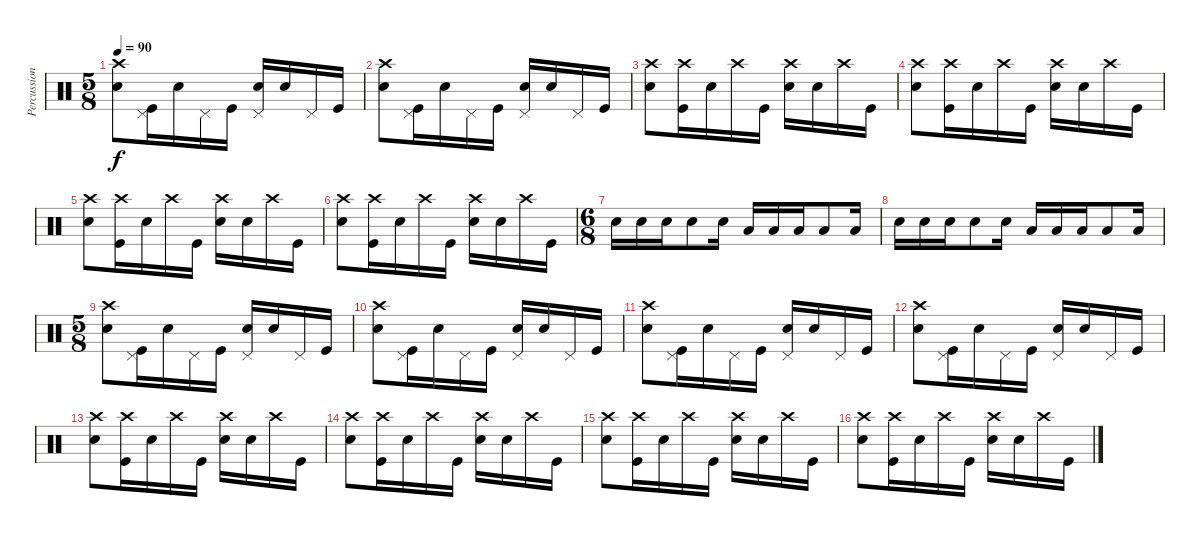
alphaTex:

\track ("Percussions" "Percussion") {instrument percussion}
\staff {score}
\articulation defaults
\ts (5 8)
\tempo 90
\clef neutral
\ks c
("Crash high (hit)" "Snare (hit) 2").8{dy f} ("Pedal Hi-Hat (hit)" "Kick (hit)").16 "Snare (hit) 2".16 "Pedal Hi-Hat (hit)".16 "Kick (hit)".16 ("Pedal Hi-Hat (hit)" "Snare (hit) 2").16 "Snare (hit) 2".16 "Pedal Hi-Hat (hit)".16 "Kick (hit)".16 |
("Crash high (hit)" "Snare (hit) 2").8 ("Pedal Hi-Hat (hit)" "Kick (hit)").16 "Snare (hit) 2".16 "Pedal Hi-Hat (hit)".16 "Kick (hit)".16 ("Pedal Hi-Hat (hit)" "Snare (hit) 2").16 "Snare (hit) 2".16 "Pedal Hi-Hat (hit)".16 "Kick (hit)".16 |
("Crash high (hit)" "Snare (hit) 2").8 ("Crash high (hit)" "Kick (hit)").16 "Snare (hit) 2".16 "Crash high (hit)".16 "Kick (hit)".16 ("Crash high (hit)" "Snare (hit) 2").16 "Snare (hit) 2".16 "Crash high (hit)".16 "Kick (hit)".16 |
("Crash high (hit)" "Snare (hit) 2").8 ("Crash high (hit)" "Kick (hit)").16 "Snare (hit) 2".16 "Crash high (hit)".16 "Kick (hit)".16 ("Crash high (hit)" "Snare (hit) 2").16 "Snare (hit) 2".16 "Crash high (hit)".16 "Kick (hit)".16 |
("Crash high (hit)" "Snare (hit) 2").8 ("Crash high (hit)" "Kick (hit)").16 "Snare (hit) 2".16 "Crash high (hit)".16 "Kick (hit)".16 ("Crash high (hit)" "Snare (hit) 2").16 "Snare (hit) 2".16 "Crash high (hit)".16 "Kick (hit)".16 |
("Crash high (hit)" "Snare (hit) 2").8 ("Crash high (hit)" "Kick (hit)").16 "Snare (hit) 2".16 "Crash high (hit)".16 "Kick (hit)".16 ("Crash high (hit)" "Snare (hit) 2").16 "Snare (hit) 2".16 "Crash high (hit)".16 "Kick (hit)".16 |
\ts (6 8)
"Snare (hit) 2".16 "Snare (hit) 2".16 "Snare (hit) 2".16 "Snare (hit) 2".8 "Snare (hit) 2".16 "Low Tom (hit)".16 "Low Tom (hit)".16 "Low Tom (hit)".16 "Low Tom (hit)".8 "Low Tom (hit)".16 |
"Snare (hit) 2".16 "Snare (hit) 2".16 "Snare (hit) 2".16 "Snare (hit) 2".8 "Snare (hit) 2".16 "Low Tom (hit)".16 "Low Tom (hit)".16 "Low Tom (hit)".16 "Low Tom (hit)".8 "Low Tom (hit)".16 |
\ts (5 8)
("Crash high (hit)" "Snare (hit) 2").8 ("Pedal Hi-Hat (hit)" "Kick (hit)").16 "Snare (hit) 2".16 "Pedal Hi-Hat (hit)".16 "Kick (hit)".16 ("Pedal Hi-Hat (hit)" "Snare (hit) 2").16 "Snare (hit) 2".16 "Pedal Hi-Hat (hit)".16 "Kick (hit)".16 |
("Crash high (hit)" "Snare (hit) 2").8 ("Pedal Hi-Hat (hit)" "Kick (hit)").16 "Snare (hit) 2".16 "Pedal Hi-Hat (hit)".16 "Kick (hit)".16 ("Pedal Hi-Hat (hit)" "Snare (hit) 2").16 "Snare (hit) 2".16 "Pedal Hi-Hat (hit)".16 "Kick (hit)".16 |
("Crash high (hit)" "Snare (hit) 2").8 ("Pedal Hi-Hat (hit)" "Kick (hit)").16 "Snare (hit) 2".16 "Pedal Hi-Hat (hit)".16 "Kick (hit)".16 ("Pedal Hi-Hat (hit)" "Snare (hit) 2").16 "Snare (hit) 2".16 "Pedal Hi-Hat (hit)".16 "Kick (hit)".16 |
("Crash high (hit)" "Snare (hit) 2").8 ("Pedal Hi-Hat (hit)" "Kick (hit)").16 "Snare (hit) 2".16 "Pedal Hi-Hat (hit)".16 "Kick (hit)".16 ("Pedal Hi-Hat (hit)" "Snare (hit) 2").16 "Snare (hit) 2".16 "Pedal Hi-Hat (hit)".16 "Kick (hit)".16 |
("Crash high (hit)" "Snare (hit) 2").8 ("Crash high (hit)" "Kick (hit)").16 "Snare (hit) 2".16 "Crash high (hit)".16 "Kick (hit)".16 ("Crash high (hit)" "Snare (hit) 2").16 "Snare (hit) 2".16 "Crash high (hit)".16 "Kick (hit)".16 |
("Crash high (hit)" "Snare (hit) 2").8 ("Crash high (hit)" "Kick (hit)").16 "Snare (hit) 2".16 "Crash high (hit)".16 "Kick (hit)".16 ("Crash high (hit)" "Snare (hit) 2").16 "Snare (hit) 2".16 "Crash high (hit)".16 "Kick (hit)".16 |
("Crash high (hit)" "Snare (hit) 2").8 ("Crash high (hit)" "Kick (hit)").16 "Snare (hit) 2".16 "Crash high (hit)".16 "Kick (hit)".16 ("Crash high (hit)" "Snare (hit) 2").16 "Snare (hit) 2".16 "Crash high (hit)".16 "Kick (hit)".16 |
("Crash high (hit)" "Snare (hit) 2").8 ("Crash high (hit)" "Kick (hit)").16 "Snare (hit) 2".16 "Crash high (hit)".16 "Kick (hit)".16 ("Crash high (hit)" "Snare (hit) 2").16 "Snare (hit) 2".16 "Crash high (hit)".16 "Kick (hit)".16
